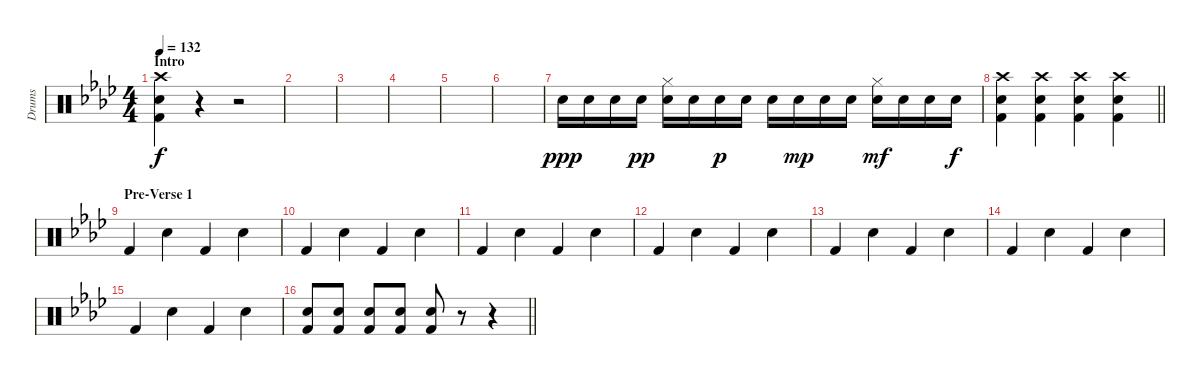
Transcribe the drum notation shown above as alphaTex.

\track ("Drums" "Drums") {instrument percussion}
\staff {score}
\articulation defaults
\ts (4 4)
\section ("" "Intro")
\tempo 132
\clef neutral
\ks ab
("Crash high (hit)" "Electric Snare (hit)" "Kick (hit) 2").4{dy f} r.4 r.2 |
|
|
|
|
|
"Electric Snare (hit)".16{dy ppp} "Electric Snare (hit)".16 "Electric Snare (hit)".16 "Electric Snare (hit)".16{dy pp} ("Hi-Hat (closed)" "Electric Snare (hit)").16 "Electric Snare (hit)".16 "Electric Snare (hit)".16{dy p} "Electric Snare (hit)".16 "Electric Snare (hit)".16 "Electric Snare (hit)".16{dy mp} "Electric Snare (hit)".16 "Electric Snare (hit)".16 ("Hi-Hat (closed)" "Electric Snare (hit)").16{dy mf} "Electric Snare (hit)".16 "Electric Snare (hit)".16 "Electric Snare (hit)".16{dy f} |
\barLineRight lightlight
("Crash high (hit)" "Electric Snare (hit)" "Kick (hit) 2").4 ("Crash high (hit)" "Electric Snare (hit)" "Kick (hit) 2").4 ("Crash high (hit)" "Electric Snare (hit)" "Kick (hit) 2").4 ("Crash high (hit)" "Electric Snare (hit)" "Kick (hit) 2").4 |
\section ("" "Pre-Verse 1")
"Kick (hit) 2".4 "Snare (hit) 2".4 "Kick (hit) 2".4 "Snare (hit) 2".4 |
"Kick (hit) 2".4 "Snare (hit) 2".4 "Kick (hit) 2".4 "Snare (hit) 2".4 |
"Kick (hit) 2".4 "Snare (hit) 2".4 "Kick (hit) 2".4 "Snare (hit) 2".4 |
"Kick (hit) 2".4 "Snare (hit) 2".4 "Kick (hit) 2".4 "Snare (hit) 2".4 |
"Kick (hit) 2".4 "Snare (hit) 2".4 "Kick (hit) 2".4 "Snare (hit) 2".4 |
"Kick (hit) 2".4 "Snare (hit) 2".4 "Kick (hit) 2".4 "Snare (hit) 2".4 |
"Kick (hit) 2".4 "Snare (hit) 2".4 "Kick (hit) 2".4 "Snare (hit) 2".4 |
\barLineRight lightlight
("Snare (hit) 2" "Kick (hit) 2").8 ("Snare (hit) 2" "Kick (hit) 2").8 ("Snare (hit) 2" "Kick (hit) 2").8 ("Snare (hit) 2" "Kick (hit) 2").8 ("Snare (hit) 2" "Kick (hit) 2").8 r.8 r.4
